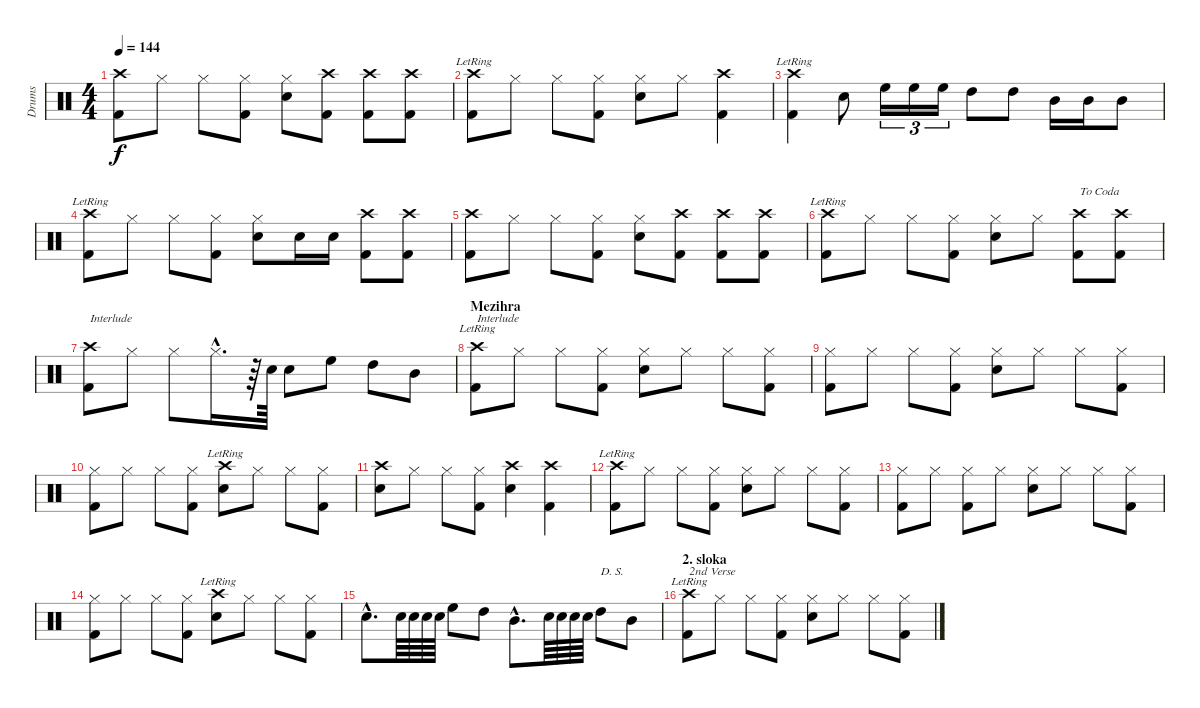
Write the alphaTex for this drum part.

\track ("Drums" "Drums") {instrument percussion}
\staff {score}
\articulation defaults
\ts (4 4)
\tempo 144
\clef neutral
\ks c
("Crash high (hit)" "Kick (hit) 2").8{dy f} "Hi-Hat (closed)".8 "Hi-Hat (closed)".8 ("Hi-Hat (closed)" "Kick (hit) 2").8 ("Hi-Hat (closed)" "Snare (hit) 2").8 ("Crash high (hit)" "Kick (hit) 2").8 ("Crash high (hit)" "Kick (hit) 2").8 ("Crash high (hit)" "Kick (hit) 2").8 |
("Crash high (hit)"{lr} "Kick (hit) 2").8 "Hi-Hat (closed)".8 "Hi-Hat (closed)".8 ("Hi-Hat (closed)" "Kick (hit) 2").8 ("Hi-Hat (closed)" "Snare (hit) 2").8 "Hi-Hat (closed)".8 ("Crash high (hit)" "Kick (hit) 2").4 |
("Crash high (hit)"{lr} "Kick (hit) 2").4 "Snare (hit) 2".8 "High Floor Tom (hit)".16{tu (3 2)} "High Floor Tom (hit)".16{tu (3 2)} "High Floor Tom (hit)".16{tu (3 2)} "High Tom (hit)".8 "High Tom (hit)".8 "Mid Tom (hit)".16 "Mid Tom (hit)".16 "Mid Tom (hit)".8 |
("Crash high (hit)"{lr} "Kick (hit) 2").8 "Hi-Hat (closed)".8 "Hi-Hat (closed)".8 ("Hi-Hat (closed)" "Kick (hit) 2").8 ("Hi-Hat (closed)" "Snare (hit) 2").8 "Snare (hit) 2".16 "Snare (hit) 2".16 ("Crash high (hit)" "Kick (hit) 2").8 ("Crash high (hit)" "Kick (hit) 2").8 |
("Crash high (hit)" "Kick (hit) 2").8 "Hi-Hat (closed)".8 "Hi-Hat (closed)".8 ("Hi-Hat (closed)" "Kick (hit) 2").8 ("Hi-Hat (closed)" "Snare (hit) 2").8 ("Crash high (hit)" "Kick (hit) 2").8 ("Crash high (hit)" "Kick (hit) 2").8 ("Crash high (hit)" "Kick (hit) 2").8 |
("Crash high (hit)"{lr} "Kick (hit) 2").8 "Hi-Hat (closed)".8 "Hi-Hat (closed)".8 ("Hi-Hat (closed)" "Kick (hit) 2").8 ("Hi-Hat (closed)" "Snare (hit) 2").8 "Hi-Hat (closed)".8 ("Crash high (hit)" "Kick (hit) 2").8{txt "To Coda"} ("Crash high (hit)" "Kick (hit) 2").8 |
("Crash high (hit)" "Kick (hit) 2").8{txt "Interlude"} "Hi-Hat (closed)".8 "Hi-Hat (closed)".8 "Hi-Hat (closed)"{hac}.16{d} r.64 "Snare (hit) 2".64 "Snare (hit) 2".8 "High Floor Tom (hit)".8 "High Tom (hit)".8 "Mid Tom (hit)".8 |
\section ("" "Mezihra")
("Crash high (hit)"{lr} "Kick (hit) 2").8{txt "Interlude"} "Hi-Hat (closed)".8 "Hi-Hat (closed)".8 ("Hi-Hat (closed)" "Kick (hit) 2").8 ("Hi-Hat (closed)" "Snare (hit) 2").8 "Hi-Hat (closed)".8 "Hi-Hat (closed)".8 ("Hi-Hat (closed)" "Kick (hit) 2").8 |
("Hi-Hat (closed)" "Kick (hit) 2").8 "Hi-Hat (closed)".8 "Hi-Hat (closed)".8 ("Hi-Hat (closed)" "Kick (hit) 2").8 ("Hi-Hat (closed)" "Snare (hit) 2").8 "Hi-Hat (closed)".8 "Hi-Hat (closed)".8 ("Hi-Hat (closed)" "Kick (hit) 2").8 |
("Hi-Hat (closed)" "Kick (hit) 2").8 "Hi-Hat (closed)".8 "Hi-Hat (closed)".8 ("Hi-Hat (closed)" "Kick (hit) 2").8 ("Crash high (hit)"{lr} "Snare (hit) 2").8 "Hi-Hat (closed)".8 "Hi-Hat (closed)".8 ("Hi-Hat (closed)" "Kick (hit) 2").8 |
("Crash high (hit)" "Snare (hit) 2").8 "Hi-Hat (closed)".8 "Hi-Hat (closed)".8 ("Hi-Hat (closed)" "Kick (hit) 2").8 ("Crash high (hit)" "Snare (hit) 2").4 ("Crash high (hit)" "Kick (hit) 2").4 |
("Crash high (hit)"{lr} "Kick (hit) 2").8 "Hi-Hat (closed)".8 "Hi-Hat (closed)".8 ("Hi-Hat (closed)" "Kick (hit) 2").8 ("Hi-Hat (closed)" "Snare (hit) 2").8 "Hi-Hat (closed)".8 "Hi-Hat (closed)".8 ("Hi-Hat (closed)" "Kick (hit) 2").8 |
("Hi-Hat (closed)" "Kick (hit) 2").8 "Hi-Hat (closed)".8 ("Hi-Hat (closed)" "Kick (hit) 2").8 "Hi-Hat (closed)".8 ("Hi-Hat (closed)" "Snare (hit) 2").8 "Hi-Hat (closed)".8 "Hi-Hat (closed)".8 ("Hi-Hat (closed)" "Kick (hit) 2").8 |
("Hi-Hat (closed)" "Kick (hit) 2").8 "Hi-Hat (closed)".8 "Hi-Hat (closed)".8 ("Hi-Hat (closed)" "Kick (hit) 2").8 ("Crash high (hit)"{lr} "Snare (hit) 2").8 "Hi-Hat (closed)".8 "Hi-Hat (closed)".8 ("Hi-Hat (closed)" "Kick (hit) 2").8 |
"Snare (hit) 2"{hac}.8{d} "Snare (hit) 2".64 "Snare (hit) 2".64 "Snare (hit) 2".64 "Snare (hit) 2".64 "High Floor Tom (hit)".8 "High Tom (hit)".8 "Mid Tom (hit)"{hac}.8{d} "Snare (hit) 2".64 "Snare (hit) 2".64 "Snare (hit) 2".64 "Snare (hit) 2".64 "High Tom (hit)".8{txt "D. S."} "Mid Tom (hit)".8 |
\section ("" "2. sloka")
("Crash high (hit)"{lr} "Kick (hit) 2").8{txt "2nd Verse"} "Hi-Hat (closed)".8 "Hi-Hat (closed)".8 ("Hi-Hat (closed)" "Kick (hit) 2").8 ("Hi-Hat (closed)" "Snare (hit) 2").8 "Hi-Hat (closed)".8 "Hi-Hat (closed)".8 ("Hi-Hat (closed)" "Kick (hit) 2").8
